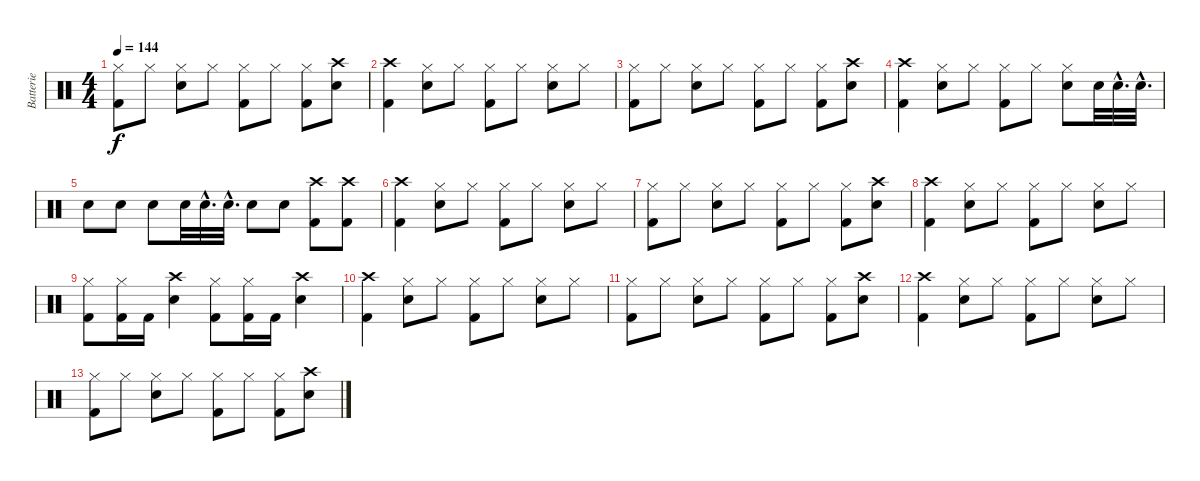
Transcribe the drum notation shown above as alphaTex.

\track ("Batterie" "Batterie") {instrument percussion}
\staff {score}
\articulation defaults
\ts (4 4)
\tempo 144
\clef neutral
\ks c
("Hi-Hat (closed)" "Kick (hit) 2").8{dy f volume 12} "Hi-Hat (closed)".8 ("Hi-Hat (closed)" "Snare (hit) 2").8 "Hi-Hat (closed)".8 ("Hi-Hat (closed)" "Kick (hit) 2").8 "Hi-Hat (closed)".8 ("Hi-Hat (closed)" "Kick (hit) 2").8 ("Crash high (hit)" "Snare (hit) 2").8 |
("Crash high (hit)" "Kick (hit) 2").4{volume 11} ("Hi-Hat (closed)" "Snare (hit) 2").8 "Hi-Hat (closed)".8 ("Hi-Hat (closed)" "Kick (hit) 2").8 "Hi-Hat (closed)".8 ("Hi-Hat (closed)" "Snare (hit) 2").8 "Hi-Hat (closed)".8 |
("Hi-Hat (closed)" "Kick (hit) 2").8{volume 10} "Hi-Hat (closed)".8 ("Hi-Hat (closed)" "Snare (hit) 2").8 "Hi-Hat (closed)".8 ("Hi-Hat (closed)" "Kick (hit) 2").8 "Hi-Hat (closed)".8 ("Hi-Hat (closed)" "Kick (hit) 2").8 ("Crash high (hit)" "Snare (hit) 2").8 |
("Crash high (hit)" "Kick (hit) 2").4{volume 9} ("Hi-Hat (closed)" "Snare (hit) 2").8 "Hi-Hat (closed)".8 ("Hi-Hat (closed)" "Kick (hit) 2").8 "Hi-Hat (closed)".8 ("Hi-Hat (closed)" "Snare (hit) 2").8 "Snare (hit) 2".32 "Snare (hit) 2"{hac}.32{d} "Snare (hit) 2"{hac}.32{d} |
"Snare (hit) 2".8{volume 8} "Snare (hit) 2".8 "Snare (hit) 2".8 "Snare (hit) 2".32 "Snare (hit) 2"{hac}.32{d} "Snare (hit) 2"{hac}.32{d} "Snare (hit) 2".8 "Snare (hit) 2".8 ("Crash high (hit)" "Kick (hit) 2").8 ("Crash high (hit)" "Kick (hit) 2").8 |
("Crash high (hit)" "Kick (hit) 2").4{volume 7} ("Hi-Hat (closed)" "Snare (hit) 2").8 "Hi-Hat (closed)".8 ("Hi-Hat (closed)" "Kick (hit) 2").8 "Hi-Hat (closed)".8 ("Hi-Hat (closed)" "Snare (hit) 2").8 "Hi-Hat (closed)".8 |
("Hi-Hat (closed)" "Kick (hit) 2").8{volume 6} "Hi-Hat (closed)".8 ("Hi-Hat (closed)" "Snare (hit) 2").8 "Hi-Hat (closed)".8 ("Hi-Hat (closed)" "Kick (hit) 2").8 "Hi-Hat (closed)".8 ("Hi-Hat (closed)" "Kick (hit) 2").8 ("Crash high (hit)" "Snare (hit) 2").8 |
("Crash high (hit)" "Kick (hit) 2").4{volume 5} ("Hi-Hat (closed)" "Snare (hit) 2").8 "Hi-Hat (closed)".8 ("Hi-Hat (closed)" "Kick (hit) 2").8 "Hi-Hat (closed)".8 ("Hi-Hat (closed)" "Snare (hit) 2").8 "Hi-Hat (closed)".8 |
("Hi-Hat (closed)" "Kick (hit) 2").8{volume 4} ("Hi-Hat (closed)" "Kick (hit) 2").16 "Kick (hit) 2".16 ("Crash high (hit)" "Snare (hit) 2").4 ("Hi-Hat (closed)" "Kick (hit) 2").8 ("Hi-Hat (closed)" "Kick (hit) 2").16 "Kick (hit) 2".16 ("Crash high (hit)" "Snare (hit) 2").4 |
("Crash high (hit)" "Kick (hit) 2").4{volume 3} ("Hi-Hat (closed)" "Snare (hit) 2").8 "Hi-Hat (closed)".8 ("Hi-Hat (closed)" "Kick (hit) 2").8 "Hi-Hat (closed)".8 ("Hi-Hat (closed)" "Snare (hit) 2").8 "Hi-Hat (closed)".8 |
("Hi-Hat (closed)" "Kick (hit) 2").8{volume 2} "Hi-Hat (closed)".8 ("Hi-Hat (closed)" "Snare (hit) 2").8 "Hi-Hat (closed)".8 ("Hi-Hat (closed)" "Kick (hit) 2").8 "Hi-Hat (closed)".8 ("Hi-Hat (closed)" "Kick (hit) 2").8 ("Crash high (hit)" "Snare (hit) 2").8 |
("Crash high (hit)" "Kick (hit) 2").4{volume 1} ("Hi-Hat (closed)" "Snare (hit) 2").8 "Hi-Hat (closed)".8 ("Hi-Hat (closed)" "Kick (hit) 2").8 "Hi-Hat (closed)".8 ("Hi-Hat (closed)" "Snare (hit) 2").8 "Hi-Hat (closed)".8 |
("Hi-Hat (closed)" "Kick (hit) 2").8{volume 0} "Hi-Hat (closed)".8 ("Hi-Hat (closed)" "Snare (hit) 2").8 "Hi-Hat (closed)".8 ("Hi-Hat (closed)" "Kick (hit) 2").8 "Hi-Hat (closed)".8 ("Hi-Hat (closed)" "Kick (hit) 2").8 ("Crash high (hit)" "Snare (hit) 2").8
